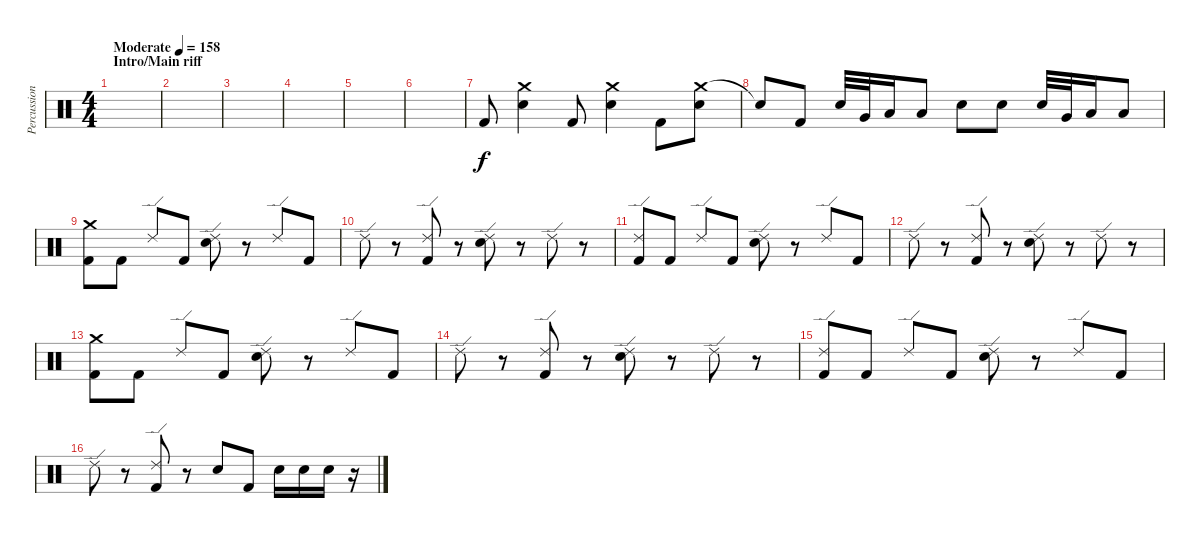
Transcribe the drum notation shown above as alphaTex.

\track ("Percussion" "Percussion") {instrument percussion}
\staff {score}
\articulation defaults
\ts (4 4)
\section ("" "Intro/Main riff")
\tempo (158 "Moderate")
\clef neutral
\ks c
|
|
|
|
|
|
"Kick (hit) 2".8 ("Crash medium (hit)" "Electric Snare (hit)").4 "Kick (hit) 2".8 ("Crash medium (hit)" "Electric Snare (hit)").4 "Kick (hit) 2".8 ("Crash medium (hit)" "Electric Snare (hit)").8 |
"Snare (hit)"{t}.8 "Kick (hit) 2".8 "Electric Snare (hit)".32 "Very Low Tom (hit)".32 "Low Floor Tom (hit)".16 "Low Tom (hit)".8 "Electric Snare (hit)".8 "Electric Snare (hit)".8 "Electric Snare (hit)".32 "Very Low Tom (hit)".32 "Low Floor Tom (hit)".16 "Low Tom (hit)".8 |
("Crash medium (hit)" "Kick (hit) 2").8 "Kick (hit) 2".8 "Ride (edge) 2".8 "Kick (hit) 2".8 ("Ride (edge) 2" "Electric Snare (hit)").8 r.8 "Ride (edge) 2".8 "Kick (hit) 2".8 |
"Ride (edge) 2".8 r.8 ("Ride (edge) 2" "Kick (hit) 2").8 r.8 ("Ride (edge) 2" "Electric Snare (hit)").8 r.8 "Ride (edge) 2".8 r.8 |
("Ride (edge) 2" "Kick (hit) 2").8 "Kick (hit) 2".8 "Ride (edge) 2".8 "Kick (hit) 2".8 ("Ride (edge) 2" "Electric Snare (hit)").8 r.8 "Ride (edge) 2".8 "Kick (hit) 2".8 |
"Ride (edge) 2".8 r.8 ("Ride (edge) 2" "Kick (hit) 2").8 r.8 ("Ride (edge) 2" "Electric Snare (hit)").8 r.8 "Ride (edge) 2".8 r.8 |
("Crash medium (hit)" "Kick (hit) 2").8 "Kick (hit) 2".8 "Ride (edge) 2".8 "Kick (hit) 2".8 ("Ride (edge) 2" "Electric Snare (hit)").8 r.8 "Ride (edge) 2".8 "Kick (hit) 2".8 |
"Ride (edge) 2".8 r.8 ("Ride (edge) 2" "Kick (hit) 2").8 r.8 ("Ride (edge) 2" "Electric Snare (hit)").8 r.8 "Ride (edge) 2".8 r.8 |
("Ride (edge) 2" "Kick (hit) 2").8 "Kick (hit) 2".8 "Ride (edge) 2".8 "Kick (hit) 2".8 ("Ride (edge) 2" "Electric Snare (hit)").8 r.8 "Ride (edge) 2".8 "Kick (hit) 2".8 |
"Ride (edge) 2".8 r.8 ("Ride (edge) 2" "Kick (hit) 2").8 r.8 "Electric Snare (hit)".8 "Kick (hit) 2".8 "Electric Snare (hit)".16 "Electric Snare (hit)".16 "Electric Snare (hit)".16 r.16
